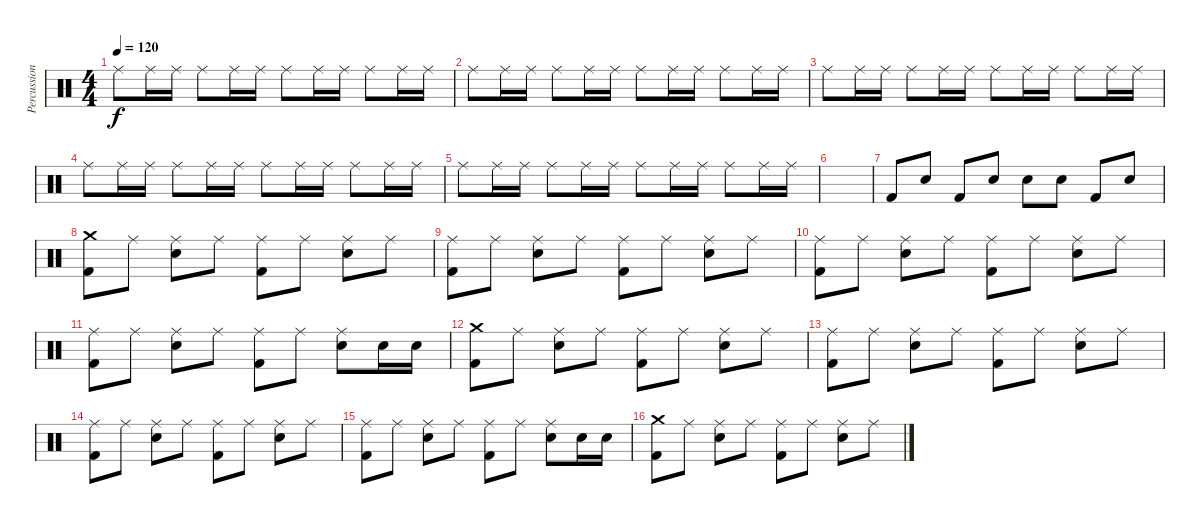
\track ("Percussions" "Percussion") {instrument percussion}
\staff {score}
\articulation defaults
\ts (4 4)
\tempo 120
\clef neutral
\ks c "Ride (middle)".8{dy f} "Ride (middle)".16 "Ride (middle)".16 "Ride (middle)".8 "Ride (middle)".16 "Ride (middle)".16 "Ride (middle)".8 "Ride (middle)".16 "Ride (middle)".16 "Ride (middle)".8 "Ride (middle)".16 "Ride (middle)".16
|
"Ride (middle)".8 "Ride (middle)".16 "Ride (middle)".16 "Ride (middle)".8 "Ride (middle)".16 "Ride (middle)".16 "Ride (middle)".8 "Ride (middle)".16 "Ride (middle)".16 "Ride (middle)".8 "Ride (middle)".16 "Ride (middle)".16 |
"Ride (middle)".8 "Ride (middle)".16 "Ride (middle)".16 "Ride (middle)".8 "Ride (middle)".16 "Ride (middle)".16 "Ride (middle)".8 "Ride (middle)".16 "Ride (middle)".16 "Ride (middle)".8 "Ride (middle)".16 "Ride (middle)".16 |
"Ride (middle)".8 "Ride (middle)".16 "Ride (middle)".16 "Ride (middle)".8 "Ride (middle)".16 "Ride (middle)".16 "Ride (middle)".8 "Ride (middle)".16 "Ride (middle)".16 "Ride (middle)".8 "Ride (middle)".16 "Ride (middle)".16 |
"Ride (middle)".8 "Ride (middle)".16 "Ride (middle)".16 "Ride (middle)".8 "Ride (middle)".16 "Ride (middle)".16 "Ride (middle)".8 "Ride (middle)".16 "Ride (middle)".16 "Ride (middle)".8 "Ride (middle)".16 "Ride (middle)".16 |
|
"Kick (hit) 2".8 "Electric Snare (hit)".8 "Kick (hit) 2".8 "Electric Snare (hit)".8 "Electric Snare (hit)".8 "Electric Snare (hit)".8 "Kick (hit) 2".8 "Electric Snare (hit)".8 |
("Crash medium (hit)" "Kick (hit) 2").8 "Ride (middle)".8 ("Ride (middle)" "Electric Snare (hit)").8 "Ride (middle)".8 ("Ride (middle)" "Kick (hit) 2").8 "Ride (middle)".8 ("Ride (middle)" "Electric Snare (hit)").8 "Ride (middle)".8 |
("Ride (middle)" "Kick (hit) 2").8 "Ride (middle)".8 ("Ride (middle)" "Electric Snare (hit)").8 "Ride (middle)".8 ("Ride (middle)" "Kick (hit) 2").8 "Ride (middle)".8 ("Ride (middle)" "Electric Snare (hit)").8 "Ride (middle)".8 |
("Ride (middle)" "Kick (hit) 2").8 "Ride (middle)".8 ("Ride (middle)" "Electric Snare (hit)").8 "Ride (middle)".8 ("Ride (middle)" "Kick (hit) 2").8 "Ride (middle)".8 ("Ride (middle)" "Electric Snare (hit)").8 "Ride (middle)".8 |
("Ride (middle)" "Kick (hit) 2").8 "Ride (middle)".8 ("Ride (middle)" "Electric Snare (hit)").8 "Ride (middle)".8 ("Ride (middle)" "Kick (hit) 2").8 "Ride (middle)".8 ("Ride (middle)" "Electric Snare (hit)").8 "Electric Snare (hit)".16 "Electric Snare (hit)".16 |
("Crash medium (hit)" "Kick (hit) 2").8 "Ride (middle)".8 ("Ride (middle)" "Electric Snare (hit)").8 "Ride (middle)".8 ("Ride (middle)" "Kick (hit) 2").8 "Ride (middle)".8 ("Ride (middle)" "Electric Snare (hit)").8 "Ride (middle)".8 |
("Ride (middle)" "Kick (hit) 2").8 "Ride (middle)".8 ("Ride (middle)" "Electric Snare (hit)").8 "Ride (middle)".8 ("Ride (middle)" "Kick (hit) 2").8 "Ride (middle)".8 ("Ride (middle)" "Electric Snare (hit)").8 "Ride (middle)".8 |
("Ride (middle)" "Kick (hit) 2").8 "Ride (middle)".8 ("Ride (middle)" "Electric Snare (hit)").8 "Ride (middle)".8 ("Ride (middle)" "Kick (hit) 2").8 "Ride (middle)".8 ("Ride (middle)" "Electric Snare (hit)").8 "Ride (middle)".8 |
("Ride (middle)" "Kick (hit) 2").8 "Ride (middle)".8 ("Ride (middle)" "Electric Snare (hit)").8 "Ride (middle)".8 ("Ride (middle)" "Kick (hit) 2").8 "Ride (middle)".8 ("Ride (middle)" "Electric Snare (hit)").8 "Electric Snare (hit)".16 "Electric Snare (hit)".16 |
("Crash medium (hit)" "Kick (hit) 2").8 "Ride (middle)".8 ("Ride (middle)" "Electric Snare (hit)").8 "Ride (middle)".8 ("Ride (middle)" "Kick (hit) 2").8 "Ride (middle)".8 ("Ride (middle)" "Electric Snare (hit)").8 "Ride (middle)".8
